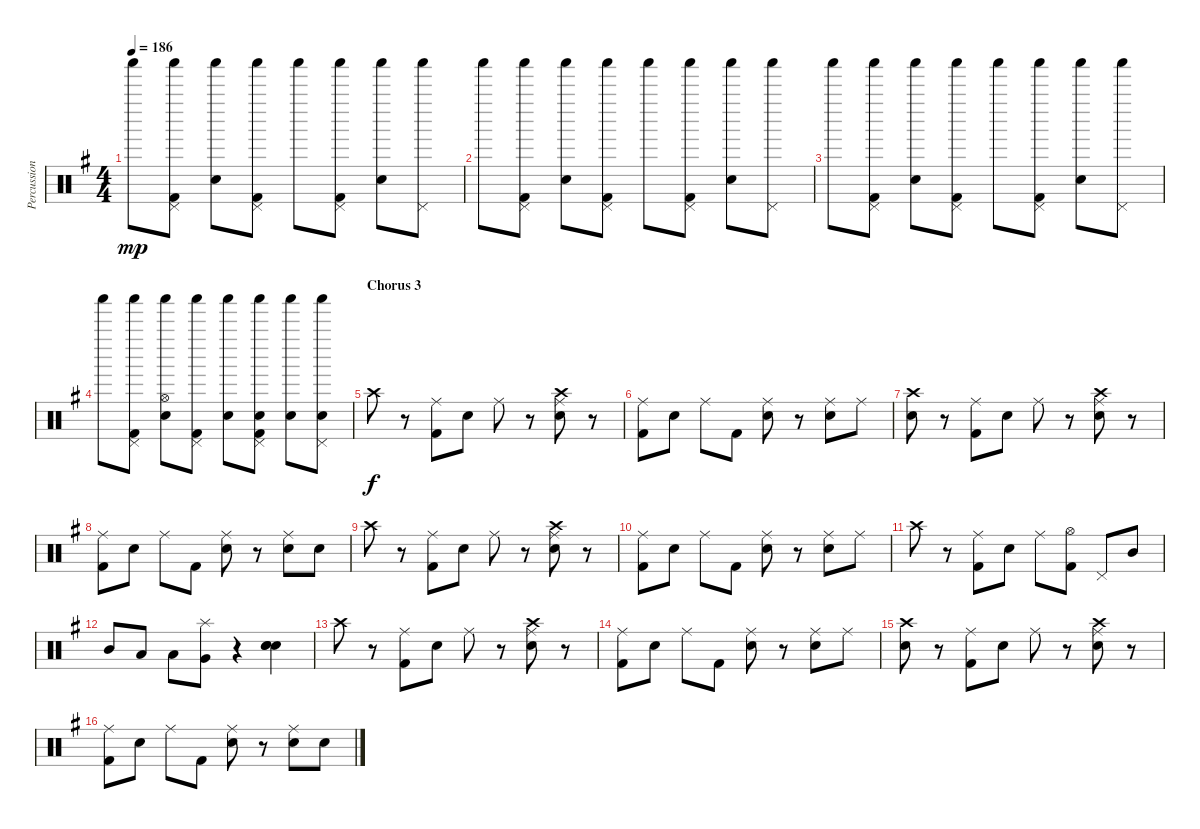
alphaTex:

\track ("Percussion" "Percussion") {instrument percussion}
\staff {score}
\articulation defaults
\ts (4 4)
\tempo 186
\clef neutral
\ks g "Shaker (hit)".8{dy mp}
("Shaker (hit)" "Pedal Hi-Hat (hit)" "Kick (hit) 2").8 ("Shaker (hit)" "Electric Snare (hit)").8 ("Shaker (hit)" "Pedal Hi-Hat (hit)" "Kick (hit) 2").8 "Shaker (hit)".8 ("Shaker (hit)" "Pedal Hi-Hat (hit)" "Kick (hit) 2").8 ("Shaker (hit)" "Electric Snare (hit)").8 ("Shaker (hit)" "Pedal Hi-Hat (hit)").8 |
"Shaker (hit)".8 ("Shaker (hit)" "Pedal Hi-Hat (hit)" "Kick (hit) 2").8 ("Shaker (hit)" "Electric Snare (hit)").8 ("Shaker (hit)" "Pedal Hi-Hat (hit)" "Kick (hit) 2").8 "Shaker (hit)".8 ("Shaker (hit)" "Pedal Hi-Hat (hit)" "Kick (hit) 2").8 ("Shaker (hit)" "Electric Snare (hit)").8 ("Shaker (hit)" "Pedal Hi-Hat (hit)").8 |
"Shaker (hit)".8 ("Shaker (hit)" "Pedal Hi-Hat (hit)" "Kick (hit) 2").8 ("Shaker (hit)" "Electric Snare (hit)").8 ("Shaker (hit)" "Pedal Hi-Hat (hit)" "Kick (hit) 2").8 "Shaker (hit)".8 ("Shaker (hit)" "Pedal Hi-Hat (hit)" "Kick (hit) 2").8 ("Shaker (hit)" "Electric Snare (hit)").8 ("Shaker (hit)" "Pedal Hi-Hat (hit)").8 |
"Shaker (hit)".8 ("Shaker (hit)" "Pedal Hi-Hat (hit)" "Kick (hit) 2").8 ("Shaker (hit)" "Hi-Hat (open)" "Electric Snare (hit)").8 ("Shaker (hit)" "Pedal Hi-Hat (hit)" "Kick (hit) 2").8 ("Shaker (hit)" "Electric Snare (hit)").8 ("Shaker (hit)" "Pedal Hi-Hat (hit)" "Electric Snare (hit)" "Kick (hit) 2").8 ("Shaker (hit)" "Electric Snare (hit)").8 ("Shaker (hit)" "Pedal Hi-Hat (hit)" "Electric Snare (hit)").8 |
\section ("" "Chorus 3")
"Crash high (hit)".8{dy f} r.8 ("Ride (middle)" "Kick (hit) 2").8 "Electric Snare (hit)".8 "Ride (middle)".8 r.8 ("Ride (middle)" "Crash high (hit)" "Electric Snare (hit)").8 r.8 |
("Ride (middle)" "Kick (hit) 2").8 "Electric Snare (hit)".8 "Ride (middle)".8 "Kick (hit) 2".8 ("Ride (middle)" "Electric Snare (hit)").8 r.8 ("Ride (middle)" "Electric Snare (hit)").8 "Ride (middle)".8 |
("Crash high (hit)" "Electric Snare (hit)").8 r.8 ("Ride (middle)" "Kick (hit) 2").8 "Electric Snare (hit)".8 "Ride (middle)".8 r.8 ("Ride (middle)" "Crash high (hit)" "Electric Snare (hit)").8 r.8 |
("Ride (middle)" "Kick (hit) 2").8 "Electric Snare (hit)".8 "Ride (middle)".8 "Kick (hit) 2".8 ("Ride (middle)" "Electric Snare (hit)").8 r.8 ("Ride (middle)" "Electric Snare (hit)").8 "Electric Snare (hit)".8 |
"Crash high (hit)".8 r.8 ("Ride (middle)" "Kick (hit) 2").8 "Electric Snare (hit)".8 "Ride (middle)".8 r.8 ("Ride (middle)" "Crash high (hit)" "Electric Snare (hit)").8 r.8 |
("Ride (middle)" "Kick (hit) 2").8 "Electric Snare (hit)".8 "Ride (middle)".8 "Kick (hit) 2".8 ("Ride (middle)" "Electric Snare (hit)").8 r.8 ("Ride (middle)" "Electric Snare (hit)").8 "Ride (middle)".8 |
"Crash high (hit)".8 r.8 ("Ride (middle)" "Kick (hit) 2").8 "Electric Snare (hit)".8 "Ride (middle)".8 ("Hi-Hat (open)" "Kick (hit) 2").8 "Pedal Hi-Hat (hit)".8 "Mid Tom (hit)".8 |
"Mid Tom (hit)".8 "Low Tom (hit)".8 "Low Tom (hit)".8 ("Splash (hit)" "Very Low Tom (hit)").8 r.4 ("Hand Clap (hit)" "Hand Clap (hit)" "Hand Clap (hit)").4 |
"Crash high (hit)".8 r.8 ("Ride (middle)" "Kick (hit) 2").8 "Electric Snare (hit)".8 "Ride (middle)".8 r.8 ("Ride (middle)" "Crash high (hit)" "Electric Snare (hit)").8 r.8 |
("Ride (middle)" "Kick (hit) 2").8 "Electric Snare (hit)".8 "Ride (middle)".8 "Kick (hit) 2".8 ("Ride (middle)" "Electric Snare (hit)").8 r.8 ("Ride (middle)" "Electric Snare (hit)").8 "Ride (middle)".8 |
("Crash high (hit)" "Electric Snare (hit)").8 r.8 ("Ride (middle)" "Kick (hit) 2").8 "Electric Snare (hit)".8 "Ride (middle)".8 r.8 ("Ride (middle)" "Crash high (hit)" "Electric Snare (hit)").8 r.8 |
("Ride (middle)" "Kick (hit) 2").8 "Electric Snare (hit)".8 "Ride (middle)".8 "Kick (hit) 2".8 ("Ride (middle)" "Electric Snare (hit)").8 r.8 ("Ride (middle)" "Electric Snare (hit)").8 "Electric Snare (hit)".8
